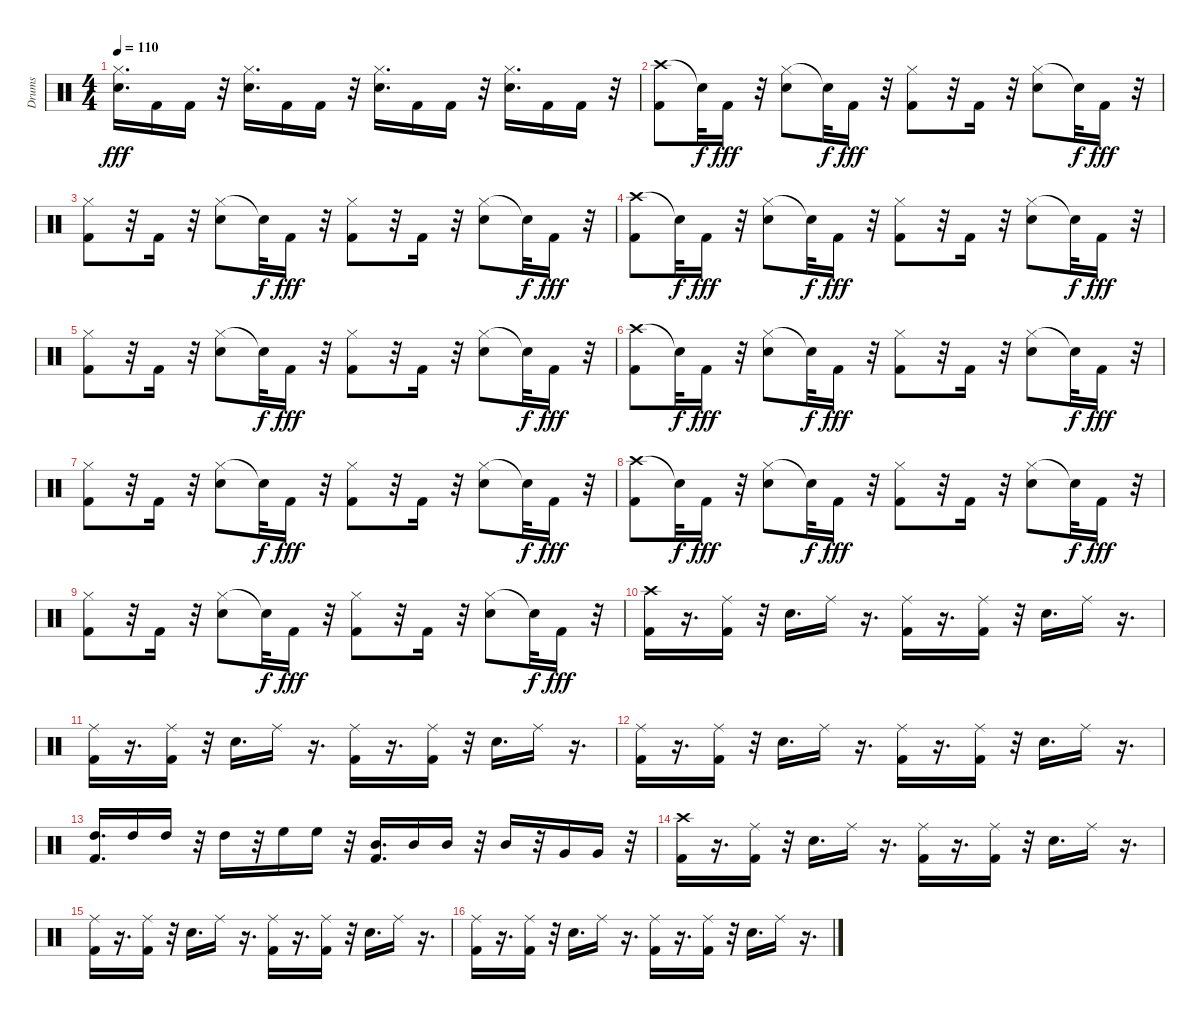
\track ("Drums" "Drums") {instrument percussion}
\staff {score}
\articulation defaults
\ts (4 4)
\tempo 110
\clef neutral
\ks c
("Hi-Hat (closed)" "Snare (hit) 2").16{d dy fff} "Kick (hit) 2".16 "Kick (hit) 2".16 r.32 ("Hi-Hat (closed)" "Snare (hit) 2").16{d} "Kick (hit) 2".16 "Kick (hit) 2".16 r.32 ("Hi-Hat (closed)" "Snare (hit) 2").16{d} "Kick (hit) 2".16 "Kick (hit) 2".16 r.32 ("Hi-Hat (closed)" "Snare (hit) 2").16{d} "Kick (hit) 2".16 "Kick (hit) 2".16 r.32 |
("Crash high (hit)" "Kick (hit) 2").8 "Snare (hit)"{t}.32{dy f} "Kick (hit) 2".16{dy fff} r.32 ("Hi-Hat (closed)" "Snare (hit) 2").8 "Snare (hit)"{t}.32{dy f} "Kick (hit) 2".16{dy fff} r.32 ("Kick (hit) 2" "Hi-Hat (closed)").8 r.32 "Kick (hit) 2".16 r.32 ("Hi-Hat (closed)" "Snare (hit) 2").8 "Snare (hit)"{t}.32{dy f} "Kick (hit) 2".16{dy fff} r.32 |
("Kick (hit) 2" "Hi-Hat (closed)").8 r.32 "Kick (hit) 2".16 r.32 ("Hi-Hat (closed)" "Snare (hit) 2").8 "Snare (hit)"{t}.32{dy f} "Kick (hit) 2".16{dy fff} r.32 ("Kick (hit) 2" "Hi-Hat (closed)").8 r.32 "Kick (hit) 2".16 r.32 ("Hi-Hat (closed)" "Snare (hit) 2").8 "Snare (hit)"{t}.32{dy f} "Kick (hit) 2".16{dy fff} r.32 |
("Crash high (hit)" "Kick (hit) 2").8 "Snare (hit)"{t}.32{dy f} "Kick (hit) 2".16{dy fff} r.32 ("Hi-Hat (closed)" "Snare (hit) 2").8 "Snare (hit)"{t}.32{dy f} "Kick (hit) 2".16{dy fff} r.32 ("Kick (hit) 2" "Hi-Hat (closed)").8 r.32 "Kick (hit) 2".16 r.32 ("Hi-Hat (closed)" "Snare (hit) 2").8 "Snare (hit)"{t}.32{dy f} "Kick (hit) 2".16{dy fff} r.32 |
("Kick (hit) 2" "Hi-Hat (closed)").8 r.32 "Kick (hit) 2".16 r.32 ("Hi-Hat (closed)" "Snare (hit) 2").8 "Snare (hit)"{t}.32{dy f} "Kick (hit) 2".16{dy fff} r.32 ("Kick (hit) 2" "Hi-Hat (closed)").8 r.32 "Kick (hit) 2".16 r.32 ("Hi-Hat (closed)" "Snare (hit) 2").8 "Snare (hit)"{t}.32{dy f} "Kick (hit) 2".16{dy fff} r.32 |
("Crash high (hit)" "Kick (hit) 2").8 "Snare (hit)"{t}.32{dy f} "Kick (hit) 2".16{dy fff} r.32 ("Hi-Hat (closed)" "Snare (hit) 2").8 "Snare (hit)"{t}.32{dy f} "Kick (hit) 2".16{dy fff} r.32 ("Kick (hit) 2" "Hi-Hat (closed)").8 r.32 "Kick (hit) 2".16 r.32 ("Hi-Hat (closed)" "Snare (hit) 2").8 "Snare (hit)"{t}.32{dy f} "Kick (hit) 2".16{dy fff} r.32 |
("Kick (hit) 2" "Hi-Hat (closed)").8 r.32 "Kick (hit) 2".16 r.32 ("Hi-Hat (closed)" "Snare (hit) 2").8 "Snare (hit)"{t}.32{dy f} "Kick (hit) 2".16{dy fff} r.32 ("Kick (hit) 2" "Hi-Hat (closed)").8 r.32 "Kick (hit) 2".16 r.32 ("Hi-Hat (closed)" "Snare (hit) 2").8 "Snare (hit)"{t}.32{dy f} "Kick (hit) 2".16{dy fff} r.32 |
("Crash high (hit)" "Kick (hit) 2").8 "Snare (hit)"{t}.32{dy f} "Kick (hit) 2".16{dy fff} r.32 ("Hi-Hat (closed)" "Snare (hit) 2").8 "Snare (hit)"{t}.32{dy f} "Kick (hit) 2".16{dy fff} r.32 ("Kick (hit) 2" "Hi-Hat (closed)").8 r.32 "Kick (hit) 2".16 r.32 ("Hi-Hat (closed)" "Snare (hit) 2").8 "Snare (hit)"{t}.32{dy f} "Kick (hit) 2".16{dy fff} r.32 |
("Kick (hit) 2" "Hi-Hat (closed)").8 r.32 "Kick (hit) 2".16 r.32 ("Hi-Hat (closed)" "Snare (hit) 2").8 "Snare (hit)"{t}.32{dy f} "Kick (hit) 2".16{dy fff} r.32 ("Kick (hit) 2" "Hi-Hat (closed)").8 r.32 "Kick (hit) 2".16 r.32 ("Hi-Hat (closed)" "Snare (hit) 2").8 "Snare (hit)"{t}.32{dy f} "Kick (hit) 2".16{dy fff} r.32 |
("Kick (hit) 2" "Crash high (hit)").16 r.16{d} ("Kick (hit) 2" "Ride (middle)").16 r.32 "Snare (hit) 2".16{d} "Ride (middle)".16 r.16{d} ("Kick (hit) 2" "Ride (middle)").16 r.16{d} ("Kick (hit) 2" "Ride (middle)").16 r.32 "Snare (hit) 2".16{d} "Ride (middle)".16 r.16{d} |
("Kick (hit) 2" "Ride (middle)").16 r.16{d} ("Kick (hit) 2" "Ride (middle)").16 r.32 "Snare (hit) 2".16{d} "Ride (middle)".16 r.16{d} ("Kick (hit) 2" "Ride (middle)").16 r.16{d} ("Kick (hit) 2" "Ride (middle)").16 r.32 "Snare (hit) 2".16{d} "Ride (middle)".16 r.16{d} |
("Kick (hit) 2" "Ride (middle)").16 r.16{d} ("Kick (hit) 2" "Ride (middle)").16 r.32 "Snare (hit) 2".16{d} "Ride (middle)".16 r.16{d} ("Kick (hit) 2" "Ride (middle)").16 r.16{d} ("Kick (hit) 2" "Ride (middle)").16 r.32 "Snare (hit) 2".16{d} "Ride (middle)".16 r.16{d} |
("Kick (hit) 2" "High Tom (hit)").16{d} "High Tom (hit)".16 "High Tom (hit)".16 r.32 "High Tom (hit)".16 r.32 "High Floor Tom (hit)".16 "High Floor Tom (hit)".16 r.32 ("Mid Tom (hit)" "Kick (hit) 2").16{d} "Mid Tom (hit)".16 "Mid Tom (hit)".16 r.32 "Mid Tom (hit)".16 r.32 "Very Low Tom (hit)".16 "Very Low Tom (hit)".16 r.32 |
("Kick (hit) 2" "Crash high (hit)").16 r.16{d} ("Kick (hit) 2" "Ride (middle)").16 r.32 "Snare (hit) 2".16{d} "Ride (middle)".16 r.16{d} ("Kick (hit) 2" "Ride (middle)").16 r.16{d} ("Kick (hit) 2" "Ride (middle)").16 r.32 "Snare (hit) 2".16{d} "Ride (middle)".16 r.16{d} |
("Kick (hit) 2" "Ride (middle)").16 r.16{d} ("Kick (hit) 2" "Ride (middle)").16 r.32 "Snare (hit) 2".16{d} "Ride (middle)".16 r.16{d} ("Kick (hit) 2" "Ride (middle)").16 r.16{d} ("Kick (hit) 2" "Ride (middle)").16 r.32 "Snare (hit) 2".16{d} "Ride (middle)".16 r.16{d} |
("Kick (hit) 2" "Ride (middle)").16 r.16{d} ("Kick (hit) 2" "Ride (middle)").16 r.32 "Snare (hit) 2".16{d} "Ride (middle)".16 r.16{d} ("Kick (hit) 2" "Ride (middle)").16 r.16{d} ("Kick (hit) 2" "Ride (middle)").16 r.32 "Snare (hit) 2".16{d} "Ride (middle)".16 r.16{d}
